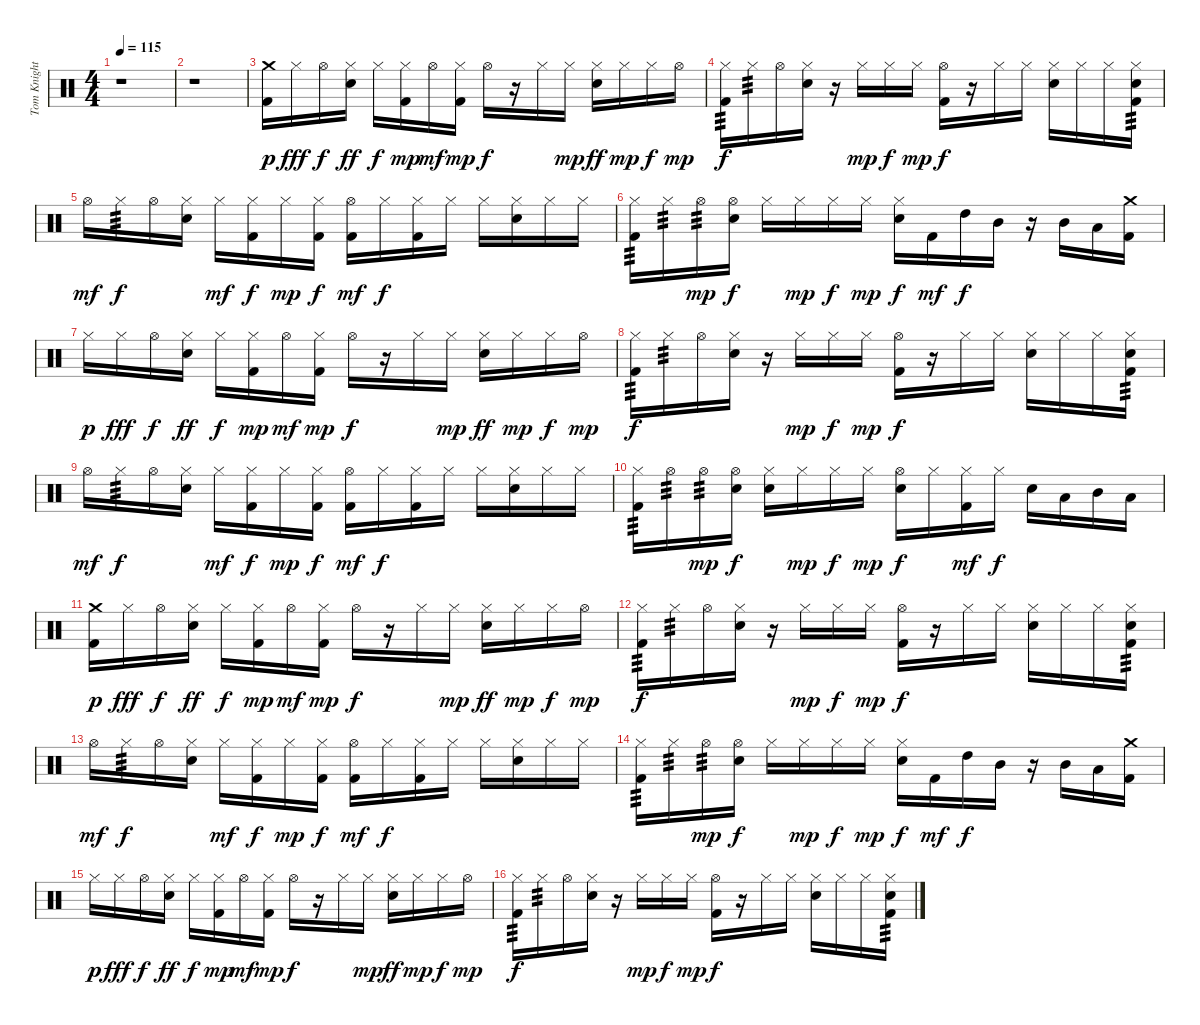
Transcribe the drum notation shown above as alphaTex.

\track ("Tom Knight" "Tom Knight") {instrument percussion}
\staff {score}
\articulation defaults
\ts (4 4)
\tempo 115
\clef neutral
\ks c
r.1{dy f} |
r.1 |
("Crash medium (hit)" "Kick (hit) 2").16{dy p} "Hi-Hat (closed)".16{dy fff} "Hi-Hat (open)".16{dy f} ("Hi-Hat (closed)" "Electric Snare (hit)").16{dy ff} "Hi-Hat (closed)".16{dy f} ("Hi-Hat (closed)" "Kick (hit) 2").16{dy mp} "Hi-Hat (open)".16{dy mf} ("Hi-Hat (closed)" "Kick (hit) 2").16{dy mp} "Hi-Hat (open)".16{dy f} r.16 "Hi-Hat (closed)".16 "Hi-Hat (closed)".16{dy mp} ("Hi-Hat (closed)" "Electric Snare (hit)").16{dy ff} "Hi-Hat (closed)".16{dy mp} "Hi-Hat (closed)".16{dy f} "Hi-Hat (open)".16{dy mp} |
("Hi-Hat (closed)" "Kick (hit) 2").16{tp 3 dy f} "Hi-Hat (closed)".16{tp 3} "Hi-Hat (open)".16 ("Hi-Hat (closed)" "Electric Snare (hit)").16 r.16 "Hi-Hat (closed)".16{dy mp} "Hi-Hat (closed)".16{dy f} "Hi-Hat (closed)".16{dy mp} ("Hi-Hat (open)" "Kick (hit) 2").16{dy f} r.16 "Hi-Hat (closed)".16 "Hi-Hat (closed)".16 ("Hi-Hat (closed)" "Electric Snare (hit)").16 "Hi-Hat (closed)".16 "Hi-Hat (closed)".16 ("Hi-Hat (closed)" "Electric Snare (hit)" "Kick (hit) 2").16{tp 3} |
"Hi-Hat (open)".16{dy mf} "Hi-Hat (closed)".16{tp 3 dy f} "Hi-Hat (open)".16 ("Hi-Hat (closed)" "Electric Snare (hit)").16 "Hi-Hat (closed)".16{dy mf} ("Hi-Hat (closed)" "Kick (hit) 2").16{dy f} "Hi-Hat (closed)".16{dy mp} ("Hi-Hat (closed)" "Kick (hit) 2").16{dy f} ("Hi-Hat (open)" "Kick (hit) 2").16{dy mf} "Hi-Hat (closed)".16{dy f} ("Hi-Hat (closed)" "Kick (hit) 2").16 "Hi-Hat (closed)".16 "Hi-Hat (closed)".16 ("Hi-Hat (closed)" "Electric Snare (hit)").16 "Hi-Hat (closed)".16 "Hi-Hat (closed)".16 |
("Hi-Hat (closed)" "Kick (hit) 2").16{tp 3} "Hi-Hat (closed)".16{tp 3} "Hi-Hat (open)".16{tp 3 dy mp} ("Hi-Hat (open)" "Electric Snare (hit)").16{dy f} "Hi-Hat (closed)".16 "Hi-Hat (closed)".16{dy mp} "Hi-Hat (closed)".16{dy f} "Hi-Hat (closed)".16{dy mp} ("Hi-Hat (closed)" "Electric Snare (hit)").16{dy f} "Kick (hit) 2".16{dy mf} "High Tom (hit)".16{dy f} "Mid Tom (hit)".16 r.16 "Mid Tom (hit)".16 "Low Tom (hit)".16 ("Crash medium (hit)" "Kick (hit) 2").16 |
"Hi-Hat (closed)".16{dy p} "Hi-Hat (closed)".16{dy fff} "Hi-Hat (open)".16{dy f} ("Hi-Hat (closed)" "Electric Snare (hit)").16{dy ff} "Hi-Hat (closed)".16{dy f} ("Hi-Hat (closed)" "Kick (hit) 2").16{dy mp} "Hi-Hat (open)".16{dy mf} ("Hi-Hat (closed)" "Kick (hit) 2").16{dy mp} "Hi-Hat (open)".16{dy f} r.16 "Hi-Hat (closed)".16 "Hi-Hat (closed)".16{dy mp} ("Hi-Hat (closed)" "Electric Snare (hit)").16{dy ff} "Hi-Hat (closed)".16{dy mp} "Hi-Hat (closed)".16{dy f} "Hi-Hat (open)".16{dy mp} |
("Hi-Hat (closed)" "Kick (hit) 2").16{tp 3 dy f} "Hi-Hat (closed)".16{tp 3} "Hi-Hat (open)".16 ("Hi-Hat (closed)" "Electric Snare (hit)").16 r.16 "Hi-Hat (closed)".16{dy mp} "Hi-Hat (closed)".16{dy f} "Hi-Hat (closed)".16{dy mp} ("Hi-Hat (open)" "Kick (hit) 2").16{dy f} r.16 "Hi-Hat (closed)".16 "Hi-Hat (closed)".16 ("Hi-Hat (closed)" "Electric Snare (hit)").16 "Hi-Hat (closed)".16 "Hi-Hat (closed)".16 ("Hi-Hat (closed)" "Electric Snare (hit)" "Kick (hit) 2").16{tp 3} |
"Hi-Hat (open)".16{dy mf} "Hi-Hat (closed)".16{tp 3 dy f} "Hi-Hat (open)".16 ("Hi-Hat (closed)" "Electric Snare (hit)").16 "Hi-Hat (closed)".16{dy mf} ("Hi-Hat (closed)" "Kick (hit) 2").16{dy f} "Hi-Hat (closed)".16{dy mp} ("Hi-Hat (closed)" "Kick (hit) 2").16{dy f} ("Hi-Hat (open)" "Kick (hit) 2").16{dy mf} "Hi-Hat (closed)".16{dy f} ("Hi-Hat (closed)" "Kick (hit) 2").16 "Hi-Hat (closed)".16 "Hi-Hat (closed)".16 ("Hi-Hat (closed)" "Electric Snare (hit)").16 "Hi-Hat (closed)".16 "Hi-Hat (closed)".16 |
("Hi-Hat (closed)" "Kick (hit) 2").16{tp 3} "Hi-Hat (open)".16{tp 3} "Hi-Hat (open)".16{tp 3 dy mp} ("Hi-Hat (open)" "Electric Snare (hit)").16{dy f} ("Hi-Hat (closed)" "Electric Snare (hit)").16 "Hi-Hat (closed)".16{dy mp} "Hi-Hat (closed)".16{dy f} "Hi-Hat (closed)".16{dy mp} ("Hi-Hat (open)" "Electric Snare (hit)").16{dy f} "Hi-Hat (closed)".16 ("Hi-Hat (closed)" "Kick (hit) 2").16{dy mf} "Hi-Hat (closed)".16{dy f} "Electric Snare (hit)".16 "Low Tom (hit)".16 "Mid Tom (hit)".16 "Low Tom (hit)".16 |
\section ("" "")
("Crash medium (hit)" "Kick (hit) 2").16{dy p} "Hi-Hat (closed)".16{dy fff} "Hi-Hat (open)".16{dy f} ("Hi-Hat (closed)" "Electric Snare (hit)").16{dy ff} "Hi-Hat (closed)".16{dy f} ("Hi-Hat (closed)" "Kick (hit) 2").16{dy mp} "Hi-Hat (open)".16{dy mf} ("Hi-Hat (closed)" "Kick (hit) 2").16{dy mp} "Hi-Hat (open)".16{dy f} r.16 "Hi-Hat (closed)".16 "Hi-Hat (closed)".16{dy mp} ("Hi-Hat (closed)" "Electric Snare (hit)").16{dy ff} "Hi-Hat (closed)".16{dy mp} "Hi-Hat (closed)".16{dy f} "Hi-Hat (open)".16{dy mp} |
("Hi-Hat (closed)" "Kick (hit) 2").16{tp 3 dy f} "Hi-Hat (closed)".16{tp 3} "Hi-Hat (open)".16 ("Hi-Hat (closed)" "Electric Snare (hit)").16 r.16 "Hi-Hat (closed)".16{dy mp} "Hi-Hat (closed)".16{dy f} "Hi-Hat (closed)".16{dy mp} ("Hi-Hat (open)" "Kick (hit) 2").16{dy f} r.16 "Hi-Hat (closed)".16 "Hi-Hat (closed)".16 ("Hi-Hat (closed)" "Electric Snare (hit)").16 "Hi-Hat (closed)".16 "Hi-Hat (closed)".16 ("Hi-Hat (closed)" "Electric Snare (hit)" "Kick (hit) 2").16{tp 3} |
"Hi-Hat (open)".16{dy mf} "Hi-Hat (closed)".16{tp 3 dy f} "Hi-Hat (open)".16 ("Hi-Hat (closed)" "Electric Snare (hit)").16 "Hi-Hat (closed)".16{dy mf} ("Hi-Hat (closed)" "Kick (hit) 2").16{dy f} "Hi-Hat (closed)".16{dy mp} ("Hi-Hat (closed)" "Kick (hit) 2").16{dy f} ("Hi-Hat (open)" "Kick (hit) 2").16{dy mf} "Hi-Hat (closed)".16{dy f} ("Hi-Hat (closed)" "Kick (hit) 2").16 "Hi-Hat (closed)".16 "Hi-Hat (closed)".16 ("Hi-Hat (closed)" "Electric Snare (hit)").16 "Hi-Hat (closed)".16 "Hi-Hat (closed)".16 |
("Hi-Hat (closed)" "Kick (hit) 2").16{tp 3} "Hi-Hat (closed)".16{tp 3} "Hi-Hat (open)".16{tp 3 dy mp} ("Hi-Hat (open)" "Electric Snare (hit)").16{dy f} "Hi-Hat (closed)".16 "Hi-Hat (closed)".16{dy mp} "Hi-Hat (closed)".16{dy f} "Hi-Hat (closed)".16{dy mp} ("Hi-Hat (closed)" "Electric Snare (hit)").16{dy f} "Kick (hit) 2".16{dy mf} "High Tom (hit)".16{dy f} "Mid Tom (hit)".16 r.16 "Mid Tom (hit)".16 "Low Tom (hit)".16 ("Crash medium (hit)" "Kick (hit) 2").16 |
"Hi-Hat (closed)".16{dy p} "Hi-Hat (closed)".16{dy fff} "Hi-Hat (open)".16{dy f} ("Hi-Hat (closed)" "Electric Snare (hit)").16{dy ff} "Hi-Hat (closed)".16{dy f} ("Hi-Hat (closed)" "Kick (hit) 2").16{dy mp} "Hi-Hat (open)".16{dy mf} ("Hi-Hat (closed)" "Kick (hit) 2").16{dy mp} "Hi-Hat (open)".16{dy f} r.16 "Hi-Hat (closed)".16 "Hi-Hat (closed)".16{dy mp} ("Hi-Hat (closed)" "Electric Snare (hit)").16{dy ff} "Hi-Hat (closed)".16{dy mp} "Hi-Hat (closed)".16{dy f} "Hi-Hat (open)".16{dy mp} |
("Hi-Hat (closed)" "Kick (hit) 2").16{tp 3 dy f} "Hi-Hat (closed)".16{tp 3} "Hi-Hat (open)".16 ("Hi-Hat (closed)" "Electric Snare (hit)").16 r.16 "Hi-Hat (closed)".16{dy mp} "Hi-Hat (closed)".16{dy f} "Hi-Hat (closed)".16{dy mp} ("Hi-Hat (open)" "Kick (hit) 2").16{dy f} r.16 "Hi-Hat (closed)".16 "Hi-Hat (closed)".16 ("Hi-Hat (closed)" "Electric Snare (hit)").16 "Hi-Hat (closed)".16 "Hi-Hat (closed)".16 ("Hi-Hat (closed)" "Electric Snare (hit)" "Kick (hit) 2").16{tp 3}
